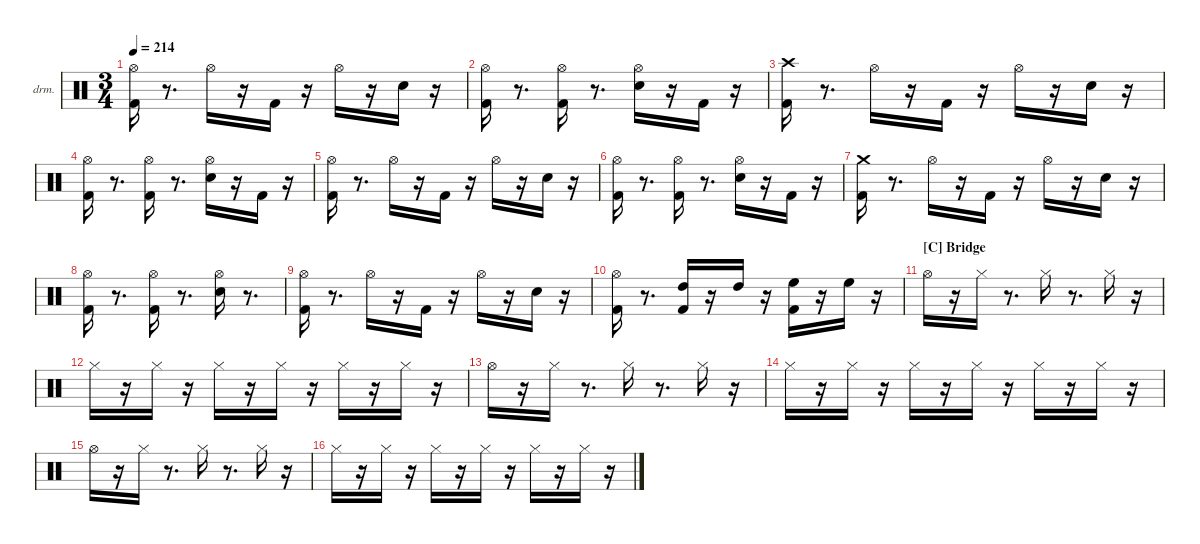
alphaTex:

\hideDynamics
\bracketExtendMode nobrackets
\firstSystemTrackNameOrientation horizontal
\track ("EZdrummer 3" "drm.") {instrument percussion}
\staff {score}
\articulation defaults
\ts (3 4)
\tempo 214
\clef neutral
\ks aminor
("Kick (hit) 2" "Hi-Hat (open)"{acc #}).16{dy fff} r.8{d} "Hi-Hat (open)"{acc #}.16{dy mf} r.16 "Kick (hit) 2".16{dy ff} r.16 "Hi-Hat (open)"{acc #}.16{dy f} r.16 "Snare (hit) 2".16{dy ff} r.16 |
("Kick (hit) 2" "Hi-Hat (open)"{acc #}).16{dy fff} r.8{d} ("Kick (hit) 2" "Hi-Hat (open)"{acc #}).16{dy ff} r.8{d} ("Snare (hit) 2" "Hi-Hat (open)"{acc #}).16{dy f} r.16 "Kick (hit) 2".16{dy mp} r.16 |
("Kick (hit) 2" "Crash high (hit)"{acc #}).16{dy fff} r.8{d} "Hi-Hat (open)"{acc #}.16{dy mf} r.16 "Kick (hit) 2".16{dy ff} r.16 "Hi-Hat (open)"{acc #}.16{dy f} r.16 "Snare (hit) 2".16{dy ff} r.16 |
("Kick (hit) 2" "Hi-Hat (open)"{acc #}).16{dy fff} r.8{d} ("Kick (hit) 2" "Hi-Hat (open)"{acc #}).16{dy mf} r.8{d} ("Snare (hit) 2" "Hi-Hat (open)"{acc #}).16{dy f} r.16 "Kick (hit) 2".16{dy mp} r.16 |
("Kick (hit) 2" "Hi-Hat (open)"{acc #}).16{dy fff} r.8{d} "Hi-Hat (open)"{acc #}.16{dy mf} r.16 "Kick (hit) 2".16{dy ff} r.16 "Hi-Hat (open)"{acc #}.16{dy f} r.16 "Snare (hit) 2".16{dy ff} r.16 |
("Kick (hit) 2" "Hi-Hat (open)"{acc #}).16{dy fff} r.8{d} ("Kick (hit) 2" "Hi-Hat (open)"{acc #}).16{dy ff} r.8{d} ("Snare (hit) 2" "Hi-Hat (open)"{acc #}).16{dy f} r.16 "Kick (hit) 2".16{dy mp} r.16 |
("Kick (hit) 2" "Crash medium (hit)").16{dy fff} r.8{d} "Hi-Hat (open)"{acc #}.16{dy mf} r.16 "Kick (hit) 2".16{dy f} r.16 "Hi-Hat (open)"{acc #}.16 r.16 "Snare (hit) 2".16{dy ff} r.16 |
("Kick (hit) 2" "Hi-Hat (open)"{acc #}).16{dy fff} r.8{d} ("Kick (hit) 2" "Hi-Hat (open)"{acc #}).16{dy mf} r.8{d} ("Snare (hit) 2" "Hi-Hat (open)"{acc #}).16{dy f} r.8{d} |
("Kick (hit) 2" "Hi-Hat (open)"{acc #}).16{dy fff} r.8{d} "Hi-Hat (open)"{acc #}.16{dy mp} r.16 "Kick (hit) 2".16{dy f} r.16 "Hi-Hat (open)"{acc #}.16 r.16 "Snare (hit) 2".16{dy ff} r.16 |
("Kick (hit) 2" "Hi-Hat (open)"{acc #}).16{dy fff} r.8{d} ("Kick (hit) 2" "High Tom (hit)").16{dy mf} r.16 "High Tom (hit)".16{dy mp} r.16 ("Kick (hit) 2" "High Floor Tom (hit)").16{dy ff} r.16 "High Floor Tom (hit)".16{dy mp} r.16 |
\section ("C" "Bridge")
"Hi-Hat (open)"{acc #}.16{dy fff} r.16 "Hi-Hat (closed)"{acc #}.16{dy ff} r.8{d} "Hi-Hat (closed)"{acc #}.16{dy mp} r.8{d} "Hi-Hat (closed)"{acc #}.16{dy mf} r.16 |
"Hi-Hat (closed)"{acc #}.16{dy ff} r.16 "Hi-Hat (closed)"{acc #}.16{dy ppp} r.16 "Hi-Hat (closed)"{acc #}.16{dy mp} r.16 "Hi-Hat (closed)"{acc #}.16{dy ppp} r.16 "Hi-Hat (closed)"{acc #}.16{dy mp} r.16 "Hi-Hat (closed)"{acc #}.16{dy ppp} r.16 |
"Hi-Hat (open)"{acc #}.16{dy fff} r.16 "Hi-Hat (closed)"{acc #}.16{dy ff} r.8{d} "Hi-Hat (closed)"{acc #}.16{dy mp} r.8{d} "Hi-Hat (closed)"{acc #}.16{dy mf} r.16 |
"Hi-Hat (closed)"{acc #}.16{dy ff} r.16 "Hi-Hat (closed)"{acc #}.16{dy ppp} r.16 "Hi-Hat (closed)"{acc #}.16{dy mp} r.16 "Hi-Hat (closed)"{acc #}.16{dy ppp} r.16 "Hi-Hat (closed)"{acc #}.16{dy mp} r.16 "Hi-Hat (closed)"{acc #}.16{dy ppp} r.16 |
"Hi-Hat (open)"{acc #}.16{dy fff} r.16 "Hi-Hat (closed)"{acc #}.16{dy ff} r.8{d} "Hi-Hat (closed)"{acc #}.16{dy mp} r.8{d} "Hi-Hat (closed)"{acc #}.16{dy mf} r.16 |
"Hi-Hat (closed)"{acc #}.16{dy ff} r.16 "Hi-Hat (closed)"{acc #}.16{dy ppp} r.16 "Hi-Hat (closed)"{acc #}.16{dy mp} r.16 "Hi-Hat (closed)"{acc #}.16{dy ppp} r.16 "Hi-Hat (closed)"{acc #}.16{dy mp} r.16 "Hi-Hat (closed)"{acc #}.16{dy ppp} r.16
